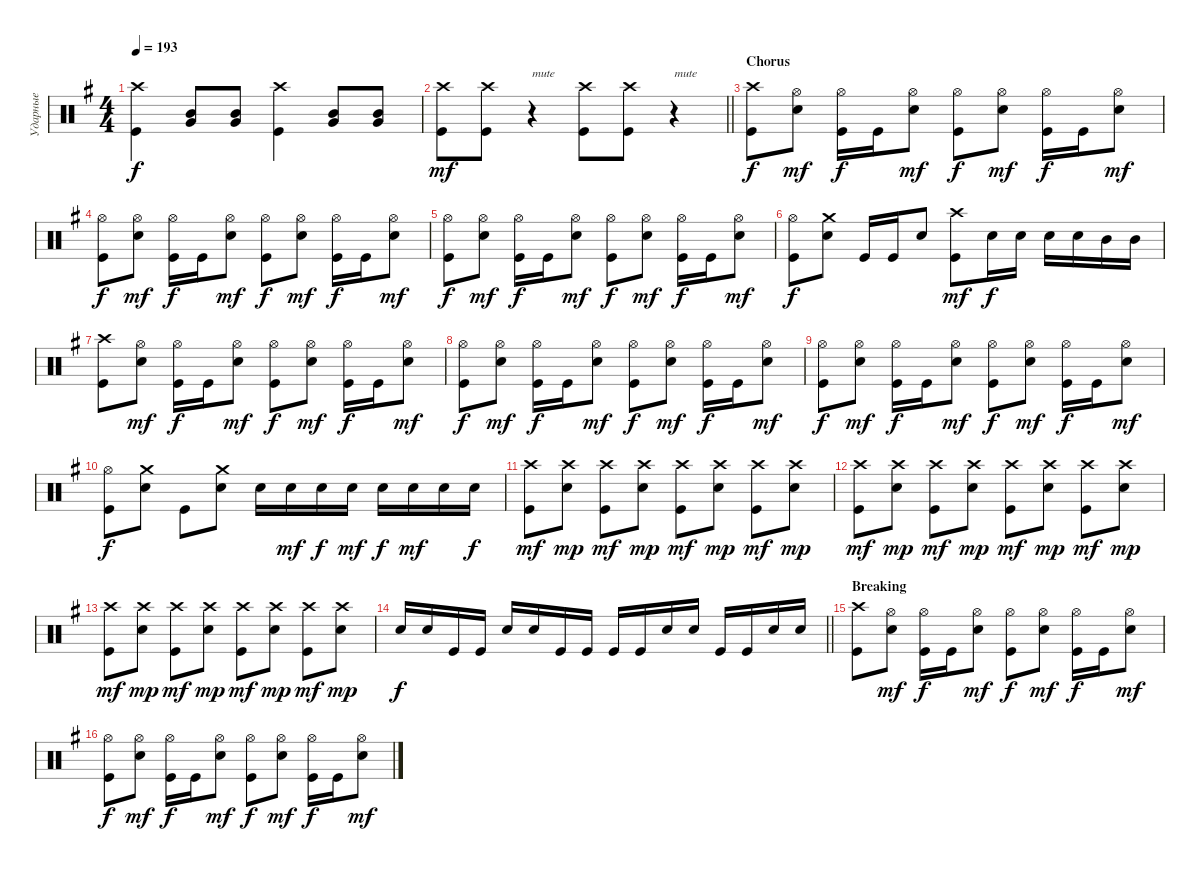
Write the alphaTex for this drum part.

\track ("Ударные" "Ударные") {instrument percussion}
\staff {score}
\articulation defaults
\ts (4 4)
\tempo 193
\clef neutral
\ks eminor
("Kick (hit)" "Crash high (hit)").4{dy f} ("Mid Tom (hit)" "Very Low Tom (hit)").8{bd 240} ("Very Low Tom (hit)" "Mid Tom (hit)").8{bd 240} ("Kick (hit)" "Crash high (hit)").4 ("Mid Tom (hit)" "Very Low Tom (hit)").8{bd 240} ("Very Low Tom (hit)" "Mid Tom (hit)").8{bd 240} |
\barLineRight lightlight
("Kick (hit)" "Crash high (hit)").8{dy mf} ("Kick (hit)" "Crash high (hit)").8 r.4{txt "mute"} ("Kick (hit)" "Crash high (hit)").8 ("Kick (hit)" "Crash high (hit)").8 r.4{txt "mute"} |
\section ("" "Chorus")
("Kick (hit)" "Crash high (hit)").8{dy f} ("Snare (hit) 2" "Hi-Hat (open)").8{dy mf} ("Kick (hit)" "Hi-Hat (open)").16{dy f} "Kick (hit)".16 ("Snare (hit) 2" "Hi-Hat (open)").8{dy mf} ("Kick (hit)" "Hi-Hat (open)").8{dy f} ("Snare (hit) 2" "Hi-Hat (open)").8{dy mf} ("Kick (hit)" "Hi-Hat (open)").16{dy f} "Kick (hit)".16 ("Snare (hit) 2" "Hi-Hat (open)").8{dy mf} |
("Kick (hit)" "Hi-Hat (open)").8{dy f} ("Snare (hit) 2" "Hi-Hat (open)").8{dy mf} ("Kick (hit)" "Hi-Hat (open)").16{dy f} "Kick (hit)".16 ("Snare (hit) 2" "Hi-Hat (open)").8{dy mf} ("Kick (hit)" "Hi-Hat (open)").8{dy f} ("Snare (hit) 2" "Hi-Hat (open)").8{dy mf} ("Kick (hit)" "Hi-Hat (open)").16{dy f} "Kick (hit)".16 ("Snare (hit) 2" "Hi-Hat (open)").8{dy mf} |
("Kick (hit)" "Hi-Hat (open)").8{dy f} ("Snare (hit) 2" "Hi-Hat (open)").8{dy mf} ("Kick (hit)" "Hi-Hat (open)").16{dy f} "Kick (hit)".16 ("Snare (hit) 2" "Hi-Hat (open)").8{dy mf} ("Kick (hit)" "Hi-Hat (open)").8{dy f} ("Snare (hit) 2" "Hi-Hat (open)").8{dy mf} ("Kick (hit)" "Hi-Hat (open)").16{dy f} "Kick (hit)".16 ("Snare (hit) 2" "Hi-Hat (open)").8{dy mf} |
("Kick (hit)" "Hi-Hat (open)").8{dy f} ("Snare (hit) 2" "Crash medium (hit)").8 "Kick (hit)".16 "Kick (hit)".16 "Snare (hit) 2".8 ("Kick (hit)" "Crash high (hit)").8{dy mf} "Snare (hit) 2".16{dy f} "Snare (hit) 2".16 "Snare (hit) 2".16 "Snare (hit) 2".16 "Mid Tom (hit)".16 "Mid Tom (hit)".16 |
("Kick (hit)" "Crash high (hit)").8 ("Snare (hit) 2" "Hi-Hat (open)").8{dy mf} ("Kick (hit)" "Hi-Hat (open)").16{dy f} "Kick (hit)".16 ("Snare (hit) 2" "Hi-Hat (open)").8{dy mf} ("Kick (hit)" "Hi-Hat (open)").8{dy f} ("Snare (hit) 2" "Hi-Hat (open)").8{dy mf} ("Kick (hit)" "Hi-Hat (open)").16{dy f} "Kick (hit)".16 ("Snare (hit) 2" "Hi-Hat (open)").8{dy mf} |
("Kick (hit)" "Hi-Hat (open)").8{dy f} ("Snare (hit) 2" "Hi-Hat (open)").8{dy mf} ("Kick (hit)" "Hi-Hat (open)").16{dy f} "Kick (hit)".16 ("Snare (hit) 2" "Hi-Hat (open)").8{dy mf} ("Kick (hit)" "Hi-Hat (open)").8{dy f} ("Snare (hit) 2" "Hi-Hat (open)").8{dy mf} ("Kick (hit)" "Hi-Hat (open)").16{dy f} "Kick (hit)".16 ("Snare (hit) 2" "Hi-Hat (open)").8{dy mf} |
("Kick (hit)" "Hi-Hat (open)").8{dy f} ("Snare (hit) 2" "Hi-Hat (open)").8{dy mf} ("Kick (hit)" "Hi-Hat (open)").16{dy f} "Kick (hit)".16 ("Snare (hit) 2" "Hi-Hat (open)").8{dy mf} ("Kick (hit)" "Hi-Hat (open)").8{dy f} ("Snare (hit) 2" "Hi-Hat (open)").8{dy mf} ("Kick (hit)" "Hi-Hat (open)").16{dy f} "Kick (hit)".16 ("Snare (hit) 2" "Hi-Hat (open)").8{dy mf} |
("Kick (hit)" "Hi-Hat (open)").8{dy f} ("Snare (hit) 2" "Crash medium (hit)").8 "Kick (hit)".8 ("Snare (hit) 2" "Crash medium (hit)").8 "Snare (hit) 2".16 "Snare (hit) 2".16{dy mf} "Snare (hit) 2".16{dy f} "Snare (hit) 2".16{dy mf} "Snare (hit) 2".16{dy f} "Snare (hit) 2".16{dy mf} "Snare (hit) 2".16 "Snare (hit) 2".16{dy f} |
("Kick (hit)" "Crash high (hit)").8{dy mf} ("Snare (hit) 2" "Crash high (hit)").8{dy mp} ("Kick (hit)" "Crash high (hit)").8{dy mf} ("Snare (hit) 2" "Crash high (hit)").8{dy mp} ("Kick (hit)" "Crash high (hit)").8{dy mf} ("Snare (hit) 2" "Crash high (hit)").8{dy mp} ("Kick (hit)" "Crash high (hit)").8{dy mf} ("Snare (hit) 2" "Crash high (hit)").8{dy mp} |
("Kick (hit)" "Crash high (hit)").8{dy mf} ("Snare (hit) 2" "Crash high (hit)").8{dy mp} ("Kick (hit)" "Crash high (hit)").8{dy mf} ("Snare (hit) 2" "Crash high (hit)").8{dy mp} ("Kick (hit)" "Crash high (hit)").8{dy mf} ("Snare (hit) 2" "Crash high (hit)").8{dy mp} ("Kick (hit)" "Crash high (hit)").8{dy mf} ("Snare (hit) 2" "Crash high (hit)").8{dy mp} |
("Kick (hit)" "Crash high (hit)").8{dy mf} ("Snare (hit) 2" "Crash high (hit)").8{dy mp} ("Kick (hit)" "Crash high (hit)").8{dy mf} ("Snare (hit) 2" "Crash high (hit)").8{dy mp} ("Kick (hit)" "Crash high (hit)").8{dy mf} ("Snare (hit) 2" "Crash high (hit)").8{dy mp} ("Kick (hit)" "Crash high (hit)").8{dy mf} ("Snare (hit) 2" "Crash high (hit)").8{dy mp} |
\barLineRight lightlight "Snare (hit) 2".16{dy f} "Snare (hit) 2".16 "Kick (hit)".16 "Kick (hit)".16 "Snare (hit) 2".16 "Snare (hit) 2".16 "Kick (hit)".16 "Kick (hit)".16 "Kick (hit)".16 "Kick (hit)".16 "Snare (hit) 2".16 "Snare (hit) 2".16 "Kick (hit)".16 "Kick (hit)".16 "Snare (hit) 2".16 "Snare (hit) 2".16
|
\section ("" "Breaking")
("Kick (hit)" "Crash high (hit)").8 ("Snare (hit) 2" "Hi-Hat (open)").8{dy mf} ("Kick (hit)" "Hi-Hat (open)").16{dy f} "Kick (hit)".16 ("Snare (hit) 2" "Hi-Hat (open)").8{dy mf} ("Kick (hit)" "Hi-Hat (open)").8{dy f} ("Snare (hit) 2" "Hi-Hat (open)").8{dy mf} ("Kick (hit)" "Hi-Hat (open)").16{dy f} "Kick (hit)".16 ("Snare (hit) 2" "Hi-Hat (open)").8{dy mf} |
("Kick (hit)" "Hi-Hat (open)").8{dy f} ("Snare (hit) 2" "Hi-Hat (open)").8{dy mf} ("Kick (hit)" "Hi-Hat (open)").16{dy f} "Kick (hit)".16 ("Snare (hit) 2" "Hi-Hat (open)").8{dy mf} ("Kick (hit)" "Hi-Hat (open)").8{dy f} ("Snare (hit) 2" "Hi-Hat (open)").8{dy mf} ("Kick (hit)" "Hi-Hat (open)").16{dy f} "Kick (hit)".16 ("Snare (hit) 2" "Hi-Hat (open)").8{dy mf}
